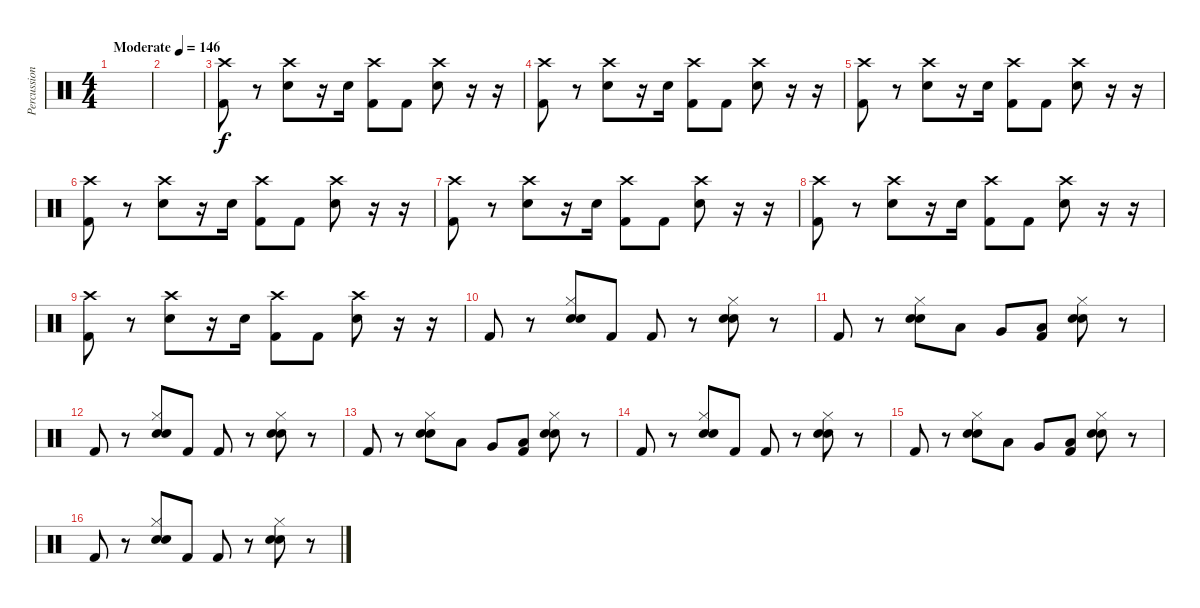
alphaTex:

\track ("Percussion" "Percussion") {instrument percussion}
\staff {score}
\articulation defaults
\ts (4 4)
\tempo (146 "Moderate")
\clef neutral
\ks c
|
|
("Crash high (hit)" "Kick (hit) 2").8 r.8 ("Crash high (hit)" "Electric Snare (hit)").8 r.16 "Electric Snare (hit)".16 ("Crash high (hit)" "Kick (hit) 2").8 "Kick (hit) 2".8 ("Crash high (hit)" "Electric Snare (hit)").8 r.16 r.16 |
("Crash high (hit)" "Kick (hit) 2").8 r.8 ("Crash high (hit)" "Electric Snare (hit)").8 r.16 "Electric Snare (hit)".16 ("Crash high (hit)" "Kick (hit) 2").8 "Kick (hit) 2".8 ("Crash high (hit)" "Electric Snare (hit)").8 r.16 r.16 |
("Crash high (hit)" "Kick (hit) 2").8 r.8 ("Crash high (hit)" "Electric Snare (hit)").8 r.16 "Electric Snare (hit)".16 ("Crash high (hit)" "Kick (hit) 2").8 "Kick (hit) 2".8 ("Crash high (hit)" "Electric Snare (hit)").8 r.16 r.16 |
("Crash high (hit)" "Kick (hit) 2").8 r.8 ("Crash high (hit)" "Electric Snare (hit)").8 r.16 "Electric Snare (hit)".16 ("Crash high (hit)" "Kick (hit) 2").8 "Kick (hit) 2".8 ("Crash high (hit)" "Electric Snare (hit)").8 r.16 r.16 |
("Crash high (hit)" "Kick (hit) 2").8 r.8 ("Crash high (hit)" "Electric Snare (hit)").8 r.16 "Electric Snare (hit)".16 ("Crash high (hit)" "Kick (hit) 2").8 "Kick (hit) 2".8 ("Crash high (hit)" "Electric Snare (hit)").8 r.16 r.16 |
("Crash high (hit)" "Kick (hit) 2").8 r.8 ("Crash high (hit)" "Electric Snare (hit)").8 r.16 "Electric Snare (hit)".16 ("Crash high (hit)" "Kick (hit) 2").8 "Kick (hit) 2".8 ("Crash high (hit)" "Electric Snare (hit)").8 r.16 r.16 |
("Crash high (hit)" "Kick (hit) 2").8 r.8 ("Crash high (hit)" "Electric Snare (hit)").8 r.16 "Electric Snare (hit)".16 ("Crash high (hit)" "Kick (hit) 2").8 "Kick (hit) 2".8 ("Crash high (hit)" "Electric Snare (hit)").8 r.16 r.16 |
"Kick (hit) 2".8 r.8 ("Hi-Hat (closed)" "Electric Snare (hit)" "Snare (hit) 2").8 "Kick (hit) 2".8 "Kick (hit) 2".8 r.8 ("Hi-Hat (closed)" "Electric Snare (hit)" "Snare (hit) 2").8 r.8 |
"Kick (hit) 2".8 r.8 ("Hi-Hat (closed)" "Electric Snare (hit)" "Snare (hit) 2").8 "Low Tom (hit)".8 "Very Low Tom (hit)".8 ("Low Floor Tom (hit)" "Kick (hit) 2").8 ("Hi-Hat (closed)" "Snare (hit) 2" "Electric Snare (hit)").8 r.8 |
"Kick (hit) 2".8 r.8 ("Hi-Hat (closed)" "Electric Snare (hit)" "Snare (hit) 2").8 "Kick (hit) 2".8 "Kick (hit) 2".8 r.8 ("Hi-Hat (closed)" "Electric Snare (hit)" "Snare (hit) 2").8 r.8 |
"Kick (hit) 2".8 r.8 ("Hi-Hat (closed)" "Electric Snare (hit)" "Snare (hit) 2").8 "Low Tom (hit)".8 "Very Low Tom (hit)".8 ("Low Floor Tom (hit)" "Kick (hit) 2").8 ("Hi-Hat (closed)" "Snare (hit) 2" "Electric Snare (hit)").8 r.8 |
"Kick (hit) 2".8 r.8 ("Hi-Hat (closed)" "Electric Snare (hit)" "Snare (hit) 2").8 "Kick (hit) 2".8 "Kick (hit) 2".8 r.8 ("Hi-Hat (closed)" "Electric Snare (hit)" "Snare (hit) 2").8 r.8 |
"Kick (hit) 2".8 r.8 ("Hi-Hat (closed)" "Electric Snare (hit)" "Snare (hit) 2").8 "Low Tom (hit)".8 "Very Low Tom (hit)".8 ("Low Floor Tom (hit)" "Kick (hit) 2").8 ("Hi-Hat (closed)" "Snare (hit) 2" "Electric Snare (hit)").8 r.8 |
"Kick (hit) 2".8 r.8 ("Hi-Hat (closed)" "Electric Snare (hit)" "Snare (hit) 2").8 "Kick (hit) 2".8 "Kick (hit) 2".8 r.8 ("Hi-Hat (closed)" "Electric Snare (hit)" "Snare (hit) 2").8 r.8
